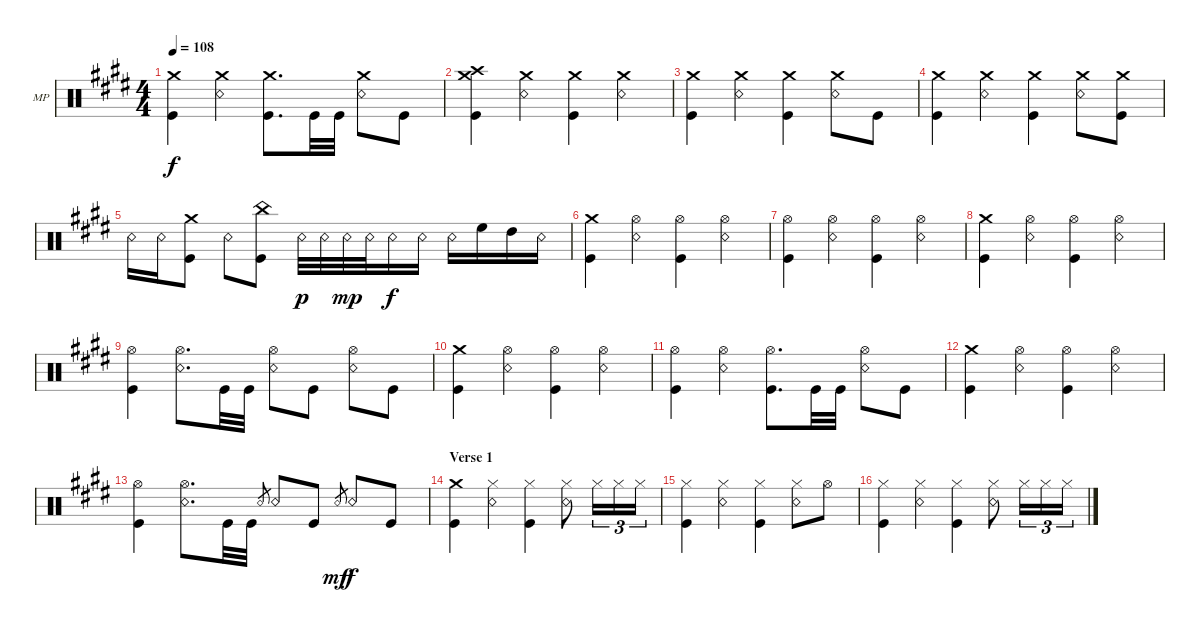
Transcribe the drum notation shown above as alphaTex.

\defaultSystemsLayout 4
\bracketExtendMode groupsimilarinstruments
\firstSystemTrackNameOrientation horizontal
\otherSystemsTrackNameOrientation horizontal
\track ("Mike Portnoy" "MP") {instrument percussion}
\staff {score}
\articulation defaults
\ts (4 4)
\tempo 108
\clef neutral
\ks e
("Crash medium (hit)" "Kick (hit)").4{dy f} ("Crash medium (hit)" "Snare (rim shot)").4 ("Crash medium (hit)" "Kick (hit)").8{d} "Kick (hit)".32 "Kick (hit)".32 ("Crash medium (hit)" "Snare (rim shot)").8 "Kick (hit)".8 |
("Crash medium (hit)" "Crash high (hit)" "Kick (hit)").4 ("Crash medium (hit)" "Snare (rim shot)").4 ("Crash medium (hit)" "Kick (hit)").4 ("Crash medium (hit)" "Snare (rim shot)").4 |
("Crash medium (hit)" "Kick (hit)").4 ("Crash medium (hit)" "Snare (rim shot)").4 ("Crash medium (hit)" "Kick (hit)").4 ("Crash medium (hit)" "Snare (rim shot)").8 "Kick (hit)".8 |
("Crash medium (hit)" "Kick (hit)").4 ("Crash medium (hit)" "Snare (rim shot)").4 ("Crash medium (hit)" "Kick (hit)").4 ("Crash medium (hit)" "Snare (rim shot)").8 ("Crash medium (hit)" "Kick (hit)").8 |
"Snare (rim shot)".16 "Snare (rim shot)".16 ("Kick (hit)" "Crash medium (hit)").8 "Snare (rim shot)".8 ("Kick (hit)" "China (hit)").8 "Snare (rim shot)".32{dy p} "Snare (rim shot)".32 "Snare (rim shot)".32{dy mp} "Snare (rim shot)".32 "Snare (rim shot)".16{dy f} "Snare (rim shot)".16 "Snare (rim shot)".16 "High Floor Tom (hit)".16 "High Tom (hit)".16 "Snare (rim shot)".16 |
("Crash medium (hit)" "Kick (hit)").4 ("Hi-Hat (open)" "Snare (rim shot)").4 ("Hi-Hat (open)" "Kick (hit)").4 ("Hi-Hat (open)" "Snare (rim shot)").4 |
("Hi-Hat (open)" "Kick (hit)").4 ("Hi-Hat (open)" "Snare (rim shot)").4 ("Hi-Hat (open)" "Kick (hit)").4 ("Hi-Hat (open)" "Snare (rim shot)").4 |
("Crash medium (hit)" "Kick (hit)").4 ("Hi-Hat (open)" "Snare (rim shot)").4 ("Hi-Hat (open)" "Kick (hit)").4 ("Hi-Hat (open)" "Snare (rim shot)").4 |
("Hi-Hat (open)" "Kick (hit)").4 ("Hi-Hat (open)" "Snare (rim shot)").8{d} "Kick (hit)".32 "Kick (hit)".32 ("Hi-Hat (open)" "Snare (rim shot)").8 "Kick (hit)".8 ("Hi-Hat (open)" "Snare (rim shot)").8 "Kick (hit)".8 |
("Crash medium (hit)" "Kick (hit)").4 ("Hi-Hat (open)" "Snare (rim shot)").4 ("Hi-Hat (open)" "Kick (hit)").4 ("Hi-Hat (open)" "Snare (rim shot)").4 |
("Hi-Hat (open)" "Kick (hit)").4 ("Hi-Hat (open)" "Snare (rim shot)").4 ("Hi-Hat (open)" "Kick (hit)").8{d} "Kick (hit)".32 "Kick (hit)".32 ("Hi-Hat (open)" "Snare (rim shot)").8 "Kick (hit)".8 |
("Crash medium (hit)" "Kick (hit)").4 ("Hi-Hat (open)" "Snare (rim shot)").4 ("Hi-Hat (open)" "Kick (hit)").4 ("Hi-Hat (open)" "Snare (rim shot)").4 |
("Hi-Hat (open)" "Kick (hit)").4 ("Hi-Hat (open)" "Snare (rim shot)").8{d} "Kick (hit)".32 "Kick (hit)".32 "Snare (rim shot)".8{gr} "Snare (rim shot)".8 "Kick (hit)".8 "Snare (rim shot)".8{gr dy mf} "Snare (rim shot)".8{dy f} "Kick (hit)".8 |
\section ("" "Verse 1")
("Crash medium (hit)" "Kick (hit)").4 ("Hi-Hat (closed)" "Snare (rim shot)").4 ("Hi-Hat (closed)" "Kick (hit)").4 ("Hi-Hat (closed)" "Snare (rim shot)").8 "Hi-Hat (closed)".16{tu (3 2)} "Hi-Hat (closed)".16{tu (3 2)} "Hi-Hat (closed)".16{tu (3 2)} |
("Hi-Hat (closed)" "Kick (hit)").4 ("Hi-Hat (closed)" "Snare (rim shot)").4 ("Hi-Hat (closed)" "Kick (hit)").4 ("Hi-Hat (closed)" "Snare (rim shot)").8 "Hi-Hat (open)".8 |
("Hi-Hat (closed)" "Kick (hit)").4 ("Hi-Hat (closed)" "Snare (rim shot)").4 ("Hi-Hat (closed)" "Kick (hit)").4 ("Hi-Hat (closed)" "Snare (rim shot)").8 "Hi-Hat (closed)".16{tu (3 2)} "Hi-Hat (closed)".16{tu (3 2)} "Hi-Hat (closed)".16{tu (3 2)}
